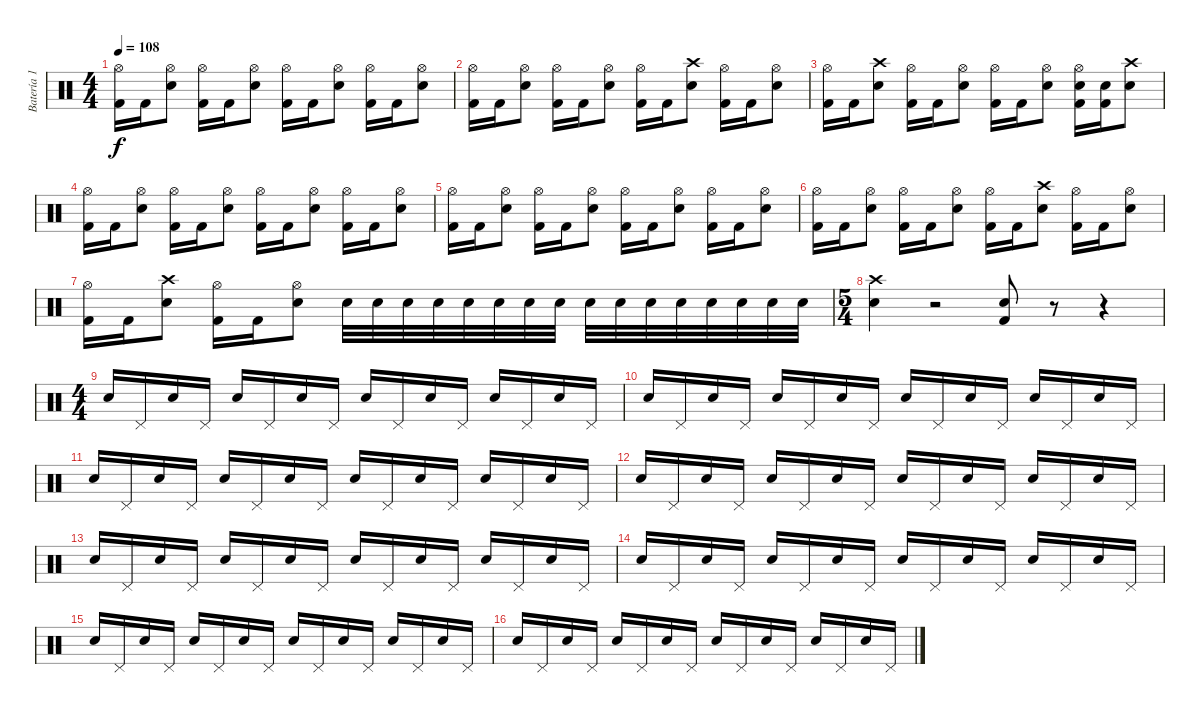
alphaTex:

\track ("Batería 1" "Batería 1") {instrument percussion}
\staff {score}
\articulation defaults
\ts (4 4)
\tempo 108
\clef neutral
\ks c
("Hi-Hat (open)" "Kick (hit) 2").16{dy f} "Kick (hit) 2".16 ("Hi-Hat (open)" "Snare (hit) 2").8 ("Hi-Hat (open)" "Kick (hit) 2").16 "Kick (hit) 2".16 ("Hi-Hat (open)" "Snare (hit) 2").8 ("Hi-Hat (open)" "Kick (hit) 2").16 "Kick (hit) 2".16 ("Hi-Hat (open)" "Snare (hit) 2").8 ("Hi-Hat (open)" "Kick (hit) 2").16 "Kick (hit) 2".16 ("Hi-Hat (open)" "Snare (hit) 2").8 |
("Hi-Hat (open)" "Kick (hit) 2").16 "Kick (hit) 2".16 ("Hi-Hat (open)" "Snare (hit) 2").8 ("Hi-Hat (open)" "Kick (hit) 2").16 "Kick (hit) 2".16 ("Hi-Hat (open)" "Snare (hit) 2").8 ("Hi-Hat (open)" "Kick (hit) 2").16 "Kick (hit) 2".16 ("Crash high (hit)" "Snare (hit) 2").8 ("Hi-Hat (open)" "Kick (hit) 2").16 "Kick (hit) 2".16 ("Hi-Hat (open)" "Snare (hit) 2").8 |
("Hi-Hat (open)" "Kick (hit) 2").16 "Kick (hit) 2".16 ("Crash high (hit)" "Snare (hit) 2").8 ("Hi-Hat (open)" "Kick (hit) 2").16 "Kick (hit) 2".16 ("Hi-Hat (open)" "Snare (hit) 2").8 ("Hi-Hat (open)" "Kick (hit) 2").16 "Kick (hit) 2".16 ("Hi-Hat (open)" "Snare (hit) 2").8 ("Hi-Hat (open)" "Kick (hit) 2" "Snare (hit) 2").16 ("Kick (hit) 2" "Snare (hit) 2").16 ("Crash high (hit)" "Snare (hit) 2").8 |
("Hi-Hat (open)" "Kick (hit) 2").16 "Kick (hit) 2".16 ("Hi-Hat (open)" "Snare (hit) 2").8 ("Hi-Hat (open)" "Kick (hit) 2").16 "Kick (hit) 2".16 ("Hi-Hat (open)" "Snare (hit) 2").8 ("Hi-Hat (open)" "Kick (hit) 2").16 "Kick (hit) 2".16 ("Hi-Hat (open)" "Snare (hit) 2").8 ("Hi-Hat (open)" "Kick (hit) 2").16 "Kick (hit) 2".16 ("Hi-Hat (open)" "Snare (hit) 2").8 |
("Hi-Hat (open)" "Kick (hit) 2").16 "Kick (hit) 2".16 ("Hi-Hat (open)" "Snare (hit) 2").8 ("Hi-Hat (open)" "Kick (hit) 2").16 "Kick (hit) 2".16 ("Hi-Hat (open)" "Snare (hit) 2").8 ("Hi-Hat (open)" "Kick (hit) 2").16 "Kick (hit) 2".16 ("Hi-Hat (open)" "Snare (hit) 2").8 ("Hi-Hat (open)" "Kick (hit) 2").16 "Kick (hit) 2".16 ("Hi-Hat (open)" "Snare (hit) 2").8 |
("Hi-Hat (open)" "Kick (hit) 2").16 "Kick (hit) 2".16 ("Hi-Hat (open)" "Snare (hit) 2").8 ("Hi-Hat (open)" "Kick (hit) 2").16 "Kick (hit) 2".16 ("Hi-Hat (open)" "Snare (hit) 2").8 ("Hi-Hat (open)" "Kick (hit) 2").16 "Kick (hit) 2".16 ("Crash high (hit)" "Snare (hit) 2").8 ("Hi-Hat (open)" "Kick (hit) 2").16 "Kick (hit) 2".16 ("Hi-Hat (open)" "Snare (hit) 2").8 |
("Hi-Hat (open)" "Kick (hit) 2").16 "Kick (hit) 2".16 ("Crash high (hit)" "Snare (hit) 2").8 ("Hi-Hat (open)" "Kick (hit) 2").16 "Kick (hit) 2".16 ("Hi-Hat (open)" "Snare (hit) 2").8 "Electric Snare (hit)".32 "Electric Snare (hit)".32 "Electric Snare (hit)".32 "Electric Snare (hit)".32 "Electric Snare (hit)".32 "Electric Snare (hit)".32 "Electric Snare (hit)".32 "Electric Snare (hit)".32 "Snare (hit) 2".32 "Snare (hit) 2".32 "Snare (hit) 2".32 "Snare (hit) 2".32 "Snare (hit) 2".32 "Snare (hit) 2".32 "Snare (hit) 2".32 "Snare (hit) 2".32 |
\ts (5 4)
("Crash high (hit)" "Snare (hit) 2").4 r.2 ("Snare (hit) 2" "Kick (hit) 2").8 r.8 r.4 |
\ts (4 4)
"Snare (hit) 2".16 "Pedal Hi-Hat (hit)".16 "Snare (hit) 2".16 "Pedal Hi-Hat (hit)".16 "Snare (hit) 2".16 "Pedal Hi-Hat (hit)".16 "Snare (hit) 2".16 "Pedal Hi-Hat (hit)".16 "Snare (hit) 2".16 "Pedal Hi-Hat (hit)".16 "Snare (hit) 2".16 "Pedal Hi-Hat (hit)".16 "Snare (hit) 2".16 "Pedal Hi-Hat (hit)".16 "Snare (hit) 2".16 "Pedal Hi-Hat (hit)".16 |
"Snare (hit) 2".16 "Pedal Hi-Hat (hit)".16 "Snare (hit) 2".16 "Pedal Hi-Hat (hit)".16 "Snare (hit) 2".16 "Pedal Hi-Hat (hit)".16 "Snare (hit) 2".16 "Pedal Hi-Hat (hit)".16 "Snare (hit) 2".16 "Pedal Hi-Hat (hit)".16 "Snare (hit) 2".16 "Pedal Hi-Hat (hit)".16 "Snare (hit) 2".16 "Pedal Hi-Hat (hit)".16 "Snare (hit) 2".16 "Pedal Hi-Hat (hit)".16 |
"Snare (hit) 2".16 "Pedal Hi-Hat (hit)".16 "Snare (hit) 2".16 "Pedal Hi-Hat (hit)".16 "Snare (hit) 2".16 "Pedal Hi-Hat (hit)".16 "Snare (hit) 2".16 "Pedal Hi-Hat (hit)".16 "Snare (hit) 2".16 "Pedal Hi-Hat (hit)".16 "Snare (hit) 2".16 "Pedal Hi-Hat (hit)".16 "Snare (hit) 2".16 "Pedal Hi-Hat (hit)".16 "Snare (hit) 2".16 "Pedal Hi-Hat (hit)".16 |
"Snare (hit) 2".16 "Pedal Hi-Hat (hit)".16 "Snare (hit) 2".16 "Pedal Hi-Hat (hit)".16 "Snare (hit) 2".16 "Pedal Hi-Hat (hit)".16 "Snare (hit) 2".16 "Pedal Hi-Hat (hit)".16 "Snare (hit) 2".16 "Pedal Hi-Hat (hit)".16 "Snare (hit) 2".16 "Pedal Hi-Hat (hit)".16 "Snare (hit) 2".16 "Pedal Hi-Hat (hit)".16 "Snare (hit) 2".16 "Pedal Hi-Hat (hit)".16 |
"Snare (hit) 2".16 "Pedal Hi-Hat (hit)".16 "Snare (hit) 2".16 "Pedal Hi-Hat (hit)".16 "Snare (hit) 2".16 "Pedal Hi-Hat (hit)".16 "Snare (hit) 2".16 "Pedal Hi-Hat (hit)".16 "Snare (hit) 2".16 "Pedal Hi-Hat (hit)".16 "Snare (hit) 2".16 "Pedal Hi-Hat (hit)".16 "Snare (hit) 2".16 "Pedal Hi-Hat (hit)".16 "Snare (hit) 2".16 "Pedal Hi-Hat (hit)".16 |
"Snare (hit) 2".16 "Pedal Hi-Hat (hit)".16 "Snare (hit) 2".16 "Pedal Hi-Hat (hit)".16 "Snare (hit) 2".16 "Pedal Hi-Hat (hit)".16 "Snare (hit) 2".16 "Pedal Hi-Hat (hit)".16 "Snare (hit) 2".16 "Pedal Hi-Hat (hit)".16 "Snare (hit) 2".16 "Pedal Hi-Hat (hit)".16 "Snare (hit) 2".16 "Pedal Hi-Hat (hit)".16 "Snare (hit) 2".16 "Pedal Hi-Hat (hit)".16 |
"Snare (hit) 2".16 "Pedal Hi-Hat (hit)".16 "Snare (hit) 2".16 "Pedal Hi-Hat (hit)".16 "Snare (hit) 2".16 "Pedal Hi-Hat (hit)".16 "Snare (hit) 2".16 "Pedal Hi-Hat (hit)".16 "Snare (hit) 2".16 "Pedal Hi-Hat (hit)".16 "Snare (hit) 2".16 "Pedal Hi-Hat (hit)".16 "Snare (hit) 2".16 "Pedal Hi-Hat (hit)".16 "Snare (hit) 2".16 "Pedal Hi-Hat (hit)".16 |
"Snare (hit) 2".16 "Pedal Hi-Hat (hit)".16 "Snare (hit) 2".16 "Pedal Hi-Hat (hit)".16 "Snare (hit) 2".16 "Pedal Hi-Hat (hit)".16 "Snare (hit) 2".16 "Pedal Hi-Hat (hit)".16 "Snare (hit) 2".16 "Pedal Hi-Hat (hit)".16 "Snare (hit) 2".16 "Pedal Hi-Hat (hit)".16 "Snare (hit) 2".16 "Pedal Hi-Hat (hit)".16 "Snare (hit) 2".16 "Pedal Hi-Hat (hit)".16
